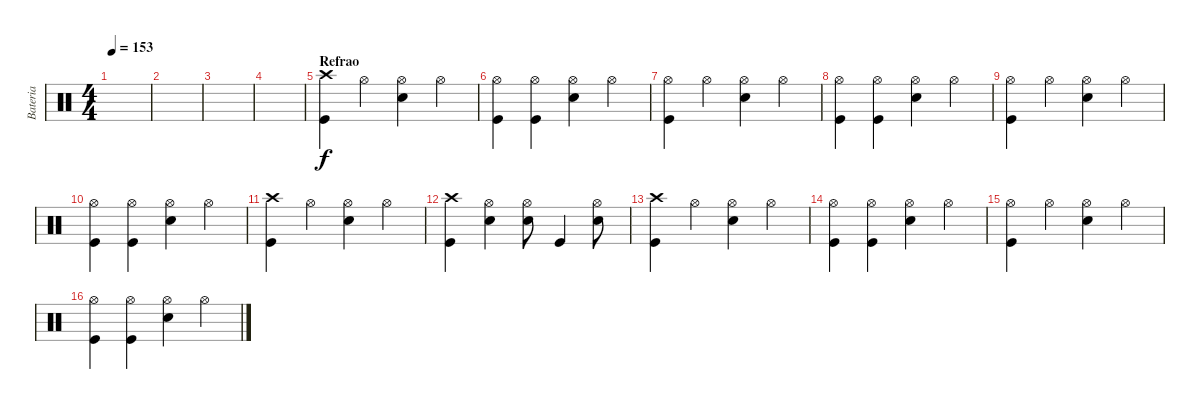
\track ("Bateria" "Bateria") {instrument percussion}
\staff {score}
\articulation defaults
\ts (4 4)
\tempo 153
\clef neutral
\ks c
|
|
|
|
\section ("" "Refrao")
("Crash high (hit)" "Kick (hit)").4 "Hi-Hat (open)".4 ("Hi-Hat (open)" "Electric Snare (hit)").4 "Hi-Hat (open)".4 |
("Hi-Hat (open)" "Kick (hit)").4 ("Hi-Hat (open)" "Kick (hit)").4 ("Hi-Hat (open)" "Electric Snare (hit)").4 "Hi-Hat (open)".4 |
("Hi-Hat (open)" "Kick (hit)").4 "Hi-Hat (open)".4 ("Hi-Hat (open)" "Electric Snare (hit)").4 "Hi-Hat (open)".4 |
("Hi-Hat (open)" "Kick (hit)").4 ("Hi-Hat (open)" "Kick (hit)").4 ("Hi-Hat (open)" "Electric Snare (hit)").4 "Hi-Hat (open)".4 |
("Hi-Hat (open)" "Kick (hit)").4 "Hi-Hat (open)".4 ("Hi-Hat (open)" "Electric Snare (hit)").4 "Hi-Hat (open)".4 |
("Hi-Hat (open)" "Kick (hit)").4 ("Hi-Hat (open)" "Kick (hit)").4 ("Hi-Hat (open)" "Electric Snare (hit)").4 "Hi-Hat (open)".4 |
("Crash high (hit)" "Kick (hit)").4 "Hi-Hat (open)".4 ("Hi-Hat (open)" "Electric Snare (hit)").4 "Hi-Hat (open)".4 |
("Crash high (hit)" "Kick (hit)").4 ("Hi-Hat (open)" "Electric Snare (hit)").4 ("Hi-Hat (open)" "Electric Snare (hit)").8 "Kick (hit)".4 ("Hi-Hat (open)" "Electric Snare (hit)").8 |
("Crash high (hit)" "Kick (hit)").4 "Hi-Hat (open)".4 ("Hi-Hat (open)" "Electric Snare (hit)").4 "Hi-Hat (open)".4 |
("Hi-Hat (open)" "Kick (hit)").4 ("Hi-Hat (open)" "Kick (hit)").4 ("Hi-Hat (open)" "Electric Snare (hit)").4 "Hi-Hat (open)".4 |
("Hi-Hat (open)" "Kick (hit)").4 "Hi-Hat (open)".4 ("Hi-Hat (open)" "Electric Snare (hit)").4 "Hi-Hat (open)".4 |
("Hi-Hat (open)" "Kick (hit)").4 ("Hi-Hat (open)" "Kick (hit)").4 ("Hi-Hat (open)" "Electric Snare (hit)").4 "Hi-Hat (open)".4
